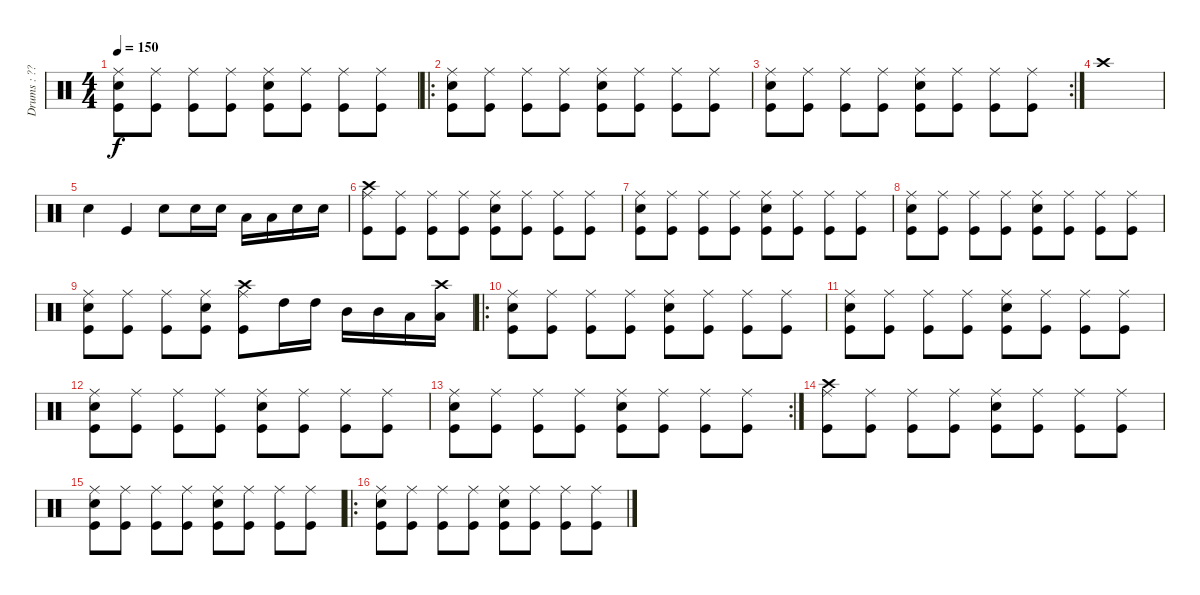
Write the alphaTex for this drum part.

\track ("Drums : ???" "Drums : ??") {instrument percussion}
\staff {score}
\articulation defaults
\ts (4 4)
\tempo 150
\clef neutral
\ks c
("Snare (hit) 2" "Ride (middle)" "Kick (hit)").8{dy f} ("Ride (middle)" "Kick (hit)").8 ("Ride (middle)" "Kick (hit)").8 ("Ride (middle)" "Kick (hit)").8 ("Snare (hit) 2" "Ride (middle)" "Kick (hit)").8 ("Ride (middle)" "Kick (hit)").8 ("Ride (middle)" "Kick (hit)").8 ("Ride (middle)" "Kick (hit)").8 |
\ro
("Snare (hit) 2" "Ride (middle)" "Kick (hit)").8 ("Ride (middle)" "Kick (hit)").8 ("Ride (middle)" "Kick (hit)").8 ("Ride (middle)" "Kick (hit)").8 ("Snare (hit) 2" "Ride (middle)" "Kick (hit)").8 ("Ride (middle)" "Kick (hit)").8 ("Ride (middle)" "Kick (hit)").8 ("Ride (middle)" "Kick (hit)").8 |
\rc 2
("Snare (hit) 2" "Ride (middle)" "Kick (hit)").8 ("Ride (middle)" "Kick (hit)").8 ("Ride (middle)" "Kick (hit)").8 ("Ride (middle)" "Kick (hit)").8 ("Snare (hit) 2" "Ride (middle)" "Kick (hit)").8 ("Ride (middle)" "Kick (hit)").8 ("Ride (middle)" "Kick (hit)").8 ("Ride (middle)" "Kick (hit)").8 |
"Crash high (hit)".1 |
"Snare (hit) 2".4 "Kick (hit)".4 "Snare (hit) 2".8 "Snare (hit) 2".16 "Snare (hit) 2".16 "Low Tom (hit)".16 "Low Tom (hit)".16 "Snare (hit) 2".16 "Snare (hit) 2".16 |
("Crash high (hit)" "Ride (middle)" "Kick (hit)").8 ("Ride (middle)" "Kick (hit)").8 ("Ride (middle)" "Kick (hit)").8 ("Ride (middle)" "Kick (hit)").8 ("Snare (hit) 2" "Ride (middle)" "Kick (hit)").8 ("Ride (middle)" "Kick (hit)").8 ("Ride (middle)" "Kick (hit)").8 ("Ride (middle)" "Kick (hit)").8 |
("Snare (hit) 2" "Ride (middle)" "Kick (hit)").8 ("Ride (middle)" "Kick (hit)").8 ("Ride (middle)" "Kick (hit)").8 ("Ride (middle)" "Kick (hit)").8 ("Snare (hit) 2" "Ride (middle)" "Kick (hit)").8 ("Ride (middle)" "Kick (hit)").8 ("Ride (middle)" "Kick (hit)").8 ("Ride (middle)" "Kick (hit)").8 |
("Snare (hit) 2" "Ride (middle)" "Kick (hit)").8 ("Ride (middle)" "Kick (hit)").8 ("Ride (middle)" "Kick (hit)").8 ("Ride (middle)" "Kick (hit)").8 ("Snare (hit) 2" "Ride (middle)" "Kick (hit)").8 ("Ride (middle)" "Kick (hit)").8 ("Ride (middle)" "Kick (hit)").8 ("Ride (middle)" "Kick (hit)").8 |
("Snare (hit) 2" "Ride (middle)" "Kick (hit)").8 ("Ride (middle)" "Kick (hit)").8 ("Ride (middle)" "Kick (hit)").8 ("Snare (hit) 2" "Ride (middle)" "Kick (hit)").8 ("Crash high (hit)" "Ride (middle)" "Kick (hit)").8 "High Tom (hit)".16 "High Tom (hit)".16 "Mid Tom (hit)".16 "Mid Tom (hit)".16 "Low Tom (hit)".16 ("Crash high (hit)" "Low Tom (hit)").16 |
\ro
("Snare (hit) 2" "Ride (middle)" "Kick (hit)").8 ("Ride (middle)" "Kick (hit)").8 ("Ride (middle)" "Kick (hit)").8 ("Ride (middle)" "Kick (hit)").8 ("Snare (hit) 2" "Ride (middle)" "Kick (hit)").8 ("Ride (middle)" "Kick (hit)").8 ("Ride (middle)" "Kick (hit)").8 ("Ride (middle)" "Kick (hit)").8 |
("Snare (hit) 2" "Ride (middle)" "Kick (hit)").8 ("Ride (middle)" "Kick (hit)").8 ("Ride (middle)" "Kick (hit)").8 ("Ride (middle)" "Kick (hit)").8 ("Snare (hit) 2" "Ride (middle)" "Kick (hit)").8 ("Ride (middle)" "Kick (hit)").8 ("Ride (middle)" "Kick (hit)").8 ("Ride (middle)" "Kick (hit)").8 |
("Snare (hit) 2" "Ride (middle)" "Kick (hit)").8 ("Ride (middle)" "Kick (hit)").8 ("Ride (middle)" "Kick (hit)").8 ("Ride (middle)" "Kick (hit)").8 ("Snare (hit) 2" "Ride (middle)" "Kick (hit)").8 ("Ride (middle)" "Kick (hit)").8 ("Ride (middle)" "Kick (hit)").8 ("Ride (middle)" "Kick (hit)").8 |
\rc 2
("Snare (hit) 2" "Ride (middle)" "Kick (hit)").8 ("Ride (middle)" "Kick (hit)").8 ("Ride (middle)" "Kick (hit)").8 ("Ride (middle)" "Kick (hit)").8 ("Snare (hit) 2" "Ride (middle)" "Kick (hit)").8 ("Ride (middle)" "Kick (hit)").8 ("Ride (middle)" "Kick (hit)").8 ("Ride (middle)" "Kick (hit)").8 |
("Crash high (hit)" "Ride (middle)" "Kick (hit)").8 ("Ride (middle)" "Kick (hit)").8 ("Ride (middle)" "Kick (hit)").8 ("Ride (middle)" "Kick (hit)").8 ("Snare (hit) 2" "Ride (middle)" "Kick (hit)").8 ("Ride (middle)" "Kick (hit)").8 ("Ride (middle)" "Kick (hit)").8 ("Ride (middle)" "Kick (hit)").8 |
("Snare (hit) 2" "Ride (middle)" "Kick (hit)").8 ("Ride (middle)" "Kick (hit)").8 ("Ride (middle)" "Kick (hit)").8 ("Ride (middle)" "Kick (hit)").8 ("Snare (hit) 2" "Ride (middle)" "Kick (hit)").8 ("Ride (middle)" "Kick (hit)").8 ("Ride (middle)" "Kick (hit)").8 ("Ride (middle)" "Kick (hit)").8 |
\ro
("Snare (hit) 2" "Ride (middle)" "Kick (hit)").8 ("Ride (middle)" "Kick (hit)").8 ("Ride (middle)" "Kick (hit)").8 ("Ride (middle)" "Kick (hit)").8 ("Snare (hit) 2" "Ride (middle)" "Kick (hit)").8 ("Ride (middle)" "Kick (hit)").8 ("Ride (middle)" "Kick (hit)").8 ("Ride (middle)" "Kick (hit)").8
